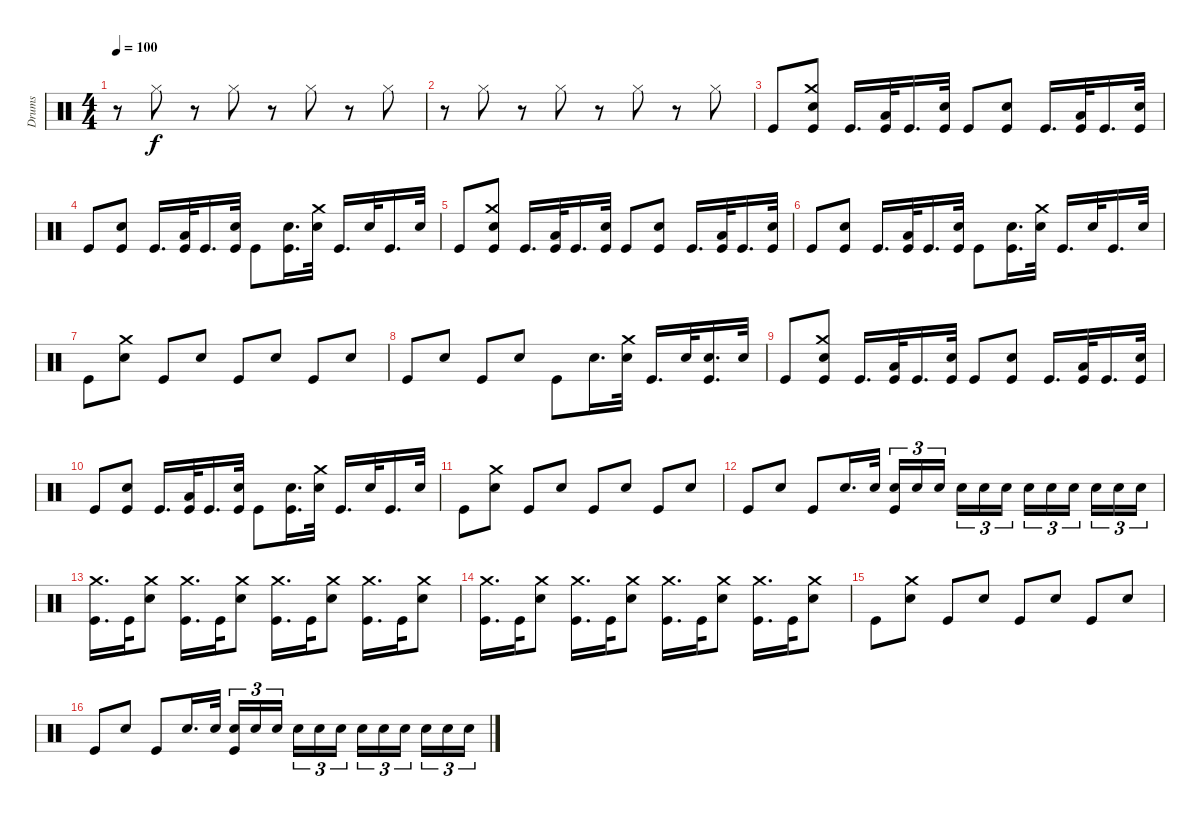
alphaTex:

\track ("Drums" "Drums") {instrument percussion}
\staff {score}
\articulation defaults
\ts (4 4)
\tempo 100
\clef neutral
\ks c
r.8{dy f} "Hi-Hat (closed)".8 r.8 "Hi-Hat (closed)".8 r.8 "Hi-Hat (closed)".8 r.8 "Hi-Hat (closed)".8 |
r.8 "Hi-Hat (closed)".8 r.8 "Hi-Hat (closed)".8 r.8 "Hi-Hat (closed)".8 r.8 "Hi-Hat (closed)".8 |
"Kick (hit)".8 ("Crash medium (hit)" "Electric Snare (hit)" "Kick (hit)").8 "Kick (hit)".16{d} ("Low Floor Tom (hit)" "Kick (hit)").32 "Kick (hit)".16{d} ("Electric Snare (hit)" "Kick (hit)").32 "Kick (hit)".8 ("Electric Snare (hit)" "Kick (hit)").8 "Kick (hit)".16{d} ("Low Floor Tom (hit)" "Kick (hit)").32 "Kick (hit)".16{d} ("Electric Snare (hit)" "Kick (hit)").32 |
"Kick (hit)".8 ("Electric Snare (hit)" "Kick (hit)").8 "Kick (hit)".16{d} ("Low Floor Tom (hit)" "Kick (hit)").32 "Kick (hit)".16{d} ("Electric Snare (hit)" "Kick (hit)").32 "Kick (hit)".8 ("Electric Snare (hit)" "Kick (hit)").16{d} ("Crash medium (hit)" "Electric Snare (hit)").32 "Kick (hit)".16{d} "Electric Snare (hit)".32 "Kick (hit)".16{d} "Electric Snare (hit)".32 |
"Kick (hit)".8 ("Crash medium (hit)" "Electric Snare (hit)" "Kick (hit)").8 "Kick (hit)".16{d} ("Low Floor Tom (hit)" "Kick (hit)").32 "Kick (hit)".16{d} ("Electric Snare (hit)" "Kick (hit)").32 "Kick (hit)".8 ("Electric Snare (hit)" "Kick (hit)").8 "Kick (hit)".16{d} ("Low Floor Tom (hit)" "Kick (hit)").32 "Kick (hit)".16{d} ("Electric Snare (hit)" "Kick (hit)").32 |
"Kick (hit)".8 ("Electric Snare (hit)" "Kick (hit)").8 "Kick (hit)".16{d} ("Low Floor Tom (hit)" "Kick (hit)").32 "Kick (hit)".16{d} ("Electric Snare (hit)" "Kick (hit)").32 "Kick (hit)".8 ("Electric Snare (hit)" "Kick (hit)").16{d} ("Crash medium (hit)" "Electric Snare (hit)").32 "Kick (hit)".16{d} "Electric Snare (hit)".32 "Kick (hit)".16{d} "Electric Snare (hit)".32 |
"Kick (hit)".8 ("Crash medium (hit)" "Electric Snare (hit)").8 "Kick (hit)".8 "Electric Snare (hit)".8 "Kick (hit)".8 "Electric Snare (hit)".8 "Kick (hit)".8 "Electric Snare (hit)".8 |
"Kick (hit)".8 "Electric Snare (hit)".8 "Kick (hit)".8 "Electric Snare (hit)".8 "Kick (hit)".8 "Electric Snare (hit)".16{d} ("Crash medium (hit)" "Electric Snare (hit)").32 "Kick (hit)".16{d} "Electric Snare (hit)".32 ("Electric Snare (hit)" "Kick (hit)").16{d} "Electric Snare (hit)".32 |
"Kick (hit)".8 ("Crash medium (hit)" "Electric Snare (hit)" "Kick (hit)").8 "Kick (hit)".16{d} ("Low Floor Tom (hit)" "Kick (hit)").32 "Kick (hit)".16{d} ("Electric Snare (hit)" "Kick (hit)").32 "Kick (hit)".8 ("Electric Snare (hit)" "Kick (hit)").8 "Kick (hit)".16{d} ("Low Floor Tom (hit)" "Kick (hit)").32 "Kick (hit)".16{d} ("Electric Snare (hit)" "Kick (hit)").32 |
"Kick (hit)".8 ("Electric Snare (hit)" "Kick (hit)").8 "Kick (hit)".16{d} ("Low Floor Tom (hit)" "Kick (hit)").32 "Kick (hit)".16{d} ("Electric Snare (hit)" "Kick (hit)").32 "Kick (hit)".8 ("Electric Snare (hit)" "Kick (hit)").16{d} ("Crash medium (hit)" "Electric Snare (hit)").32 "Kick (hit)".16{d} "Electric Snare (hit)".32 "Kick (hit)".16{d} "Electric Snare (hit)".32 |
"Kick (hit)".8 ("Crash medium (hit)" "Electric Snare (hit)").8 "Kick (hit)".8 "Electric Snare (hit)".8 "Kick (hit)".8 "Electric Snare (hit)".8 "Kick (hit)".8 "Electric Snare (hit)".8 |
"Kick (hit)".8 "Electric Snare (hit)".8 "Kick (hit)".8 "Electric Snare (hit)".16{d} "Electric Snare (hit)".32 ("Electric Snare (hit)" "Kick (hit)").16{tu (3 2)} "Electric Snare (hit)".16{tu (3 2)} "Electric Snare (hit)".16{tu (3 2) beam splitsecondary} "Electric Snare (hit)".16{tu (3 2)} "Electric Snare (hit)".16{tu (3 2)} "Electric Snare (hit)".16{tu (3 2)} "Electric Snare (hit)".16{tu (3 2)} "Electric Snare (hit)".16{tu (3 2)} "Electric Snare (hit)".16{tu (3 2) beam splitsecondary} "Electric Snare (hit)".16{tu (3 2)} "Electric Snare (hit)".16{tu (3 2)} "Electric Snare (hit)".16{tu (3 2)} |
("Crash medium (hit)" "Kick (hit)").16{d} "Kick (hit)".32 ("Crash medium (hit)" "Electric Snare (hit)").8 ("Crash medium (hit)" "Kick (hit)").16{d} "Kick (hit)".32 ("Crash medium (hit)" "Electric Snare (hit)").8 ("Crash medium (hit)" "Kick (hit)").16{d} "Kick (hit)".32 ("Crash medium (hit)" "Electric Snare (hit)").8 ("Crash medium (hit)" "Kick (hit)").16{d} "Kick (hit)".32 ("Crash medium (hit)" "Electric Snare (hit)").8 |
("Crash medium (hit)" "Kick (hit)").16{d} "Kick (hit)".32 ("Crash medium (hit)" "Electric Snare (hit)").8 ("Crash medium (hit)" "Kick (hit)").16{d} "Kick (hit)".32 ("Crash medium (hit)" "Electric Snare (hit)").8 ("Crash medium (hit)" "Kick (hit)").16{d} "Kick (hit)".32 ("Crash medium (hit)" "Electric Snare (hit)").8 ("Crash medium (hit)" "Kick (hit)").16{d} "Kick (hit)".32 ("Crash medium (hit)" "Electric Snare (hit)").8 |
"Kick (hit)".8 ("Crash medium (hit)" "Electric Snare (hit)").8 "Kick (hit)".8 "Electric Snare (hit)".8 "Kick (hit)".8 "Electric Snare (hit)".8 "Kick (hit)".8 "Electric Snare (hit)".8 |
"Kick (hit)".8 "Electric Snare (hit)".8 "Kick (hit)".8 "Electric Snare (hit)".16{d} "Electric Snare (hit)".32 ("Electric Snare (hit)" "Kick (hit)").16{tu (3 2)} "Electric Snare (hit)".16{tu (3 2)} "Electric Snare (hit)".16{tu (3 2) beam splitsecondary} "Electric Snare (hit)".16{tu (3 2)} "Electric Snare (hit)".16{tu (3 2)} "Electric Snare (hit)".16{tu (3 2)} "Electric Snare (hit)".16{tu (3 2)} "Electric Snare (hit)".16{tu (3 2)} "Electric Snare (hit)".16{tu (3 2) beam splitsecondary} "Electric Snare (hit)".16{tu (3 2)} "Electric Snare (hit)".16{tu (3 2)} "Electric Snare (hit)".16{tu (3 2)}
